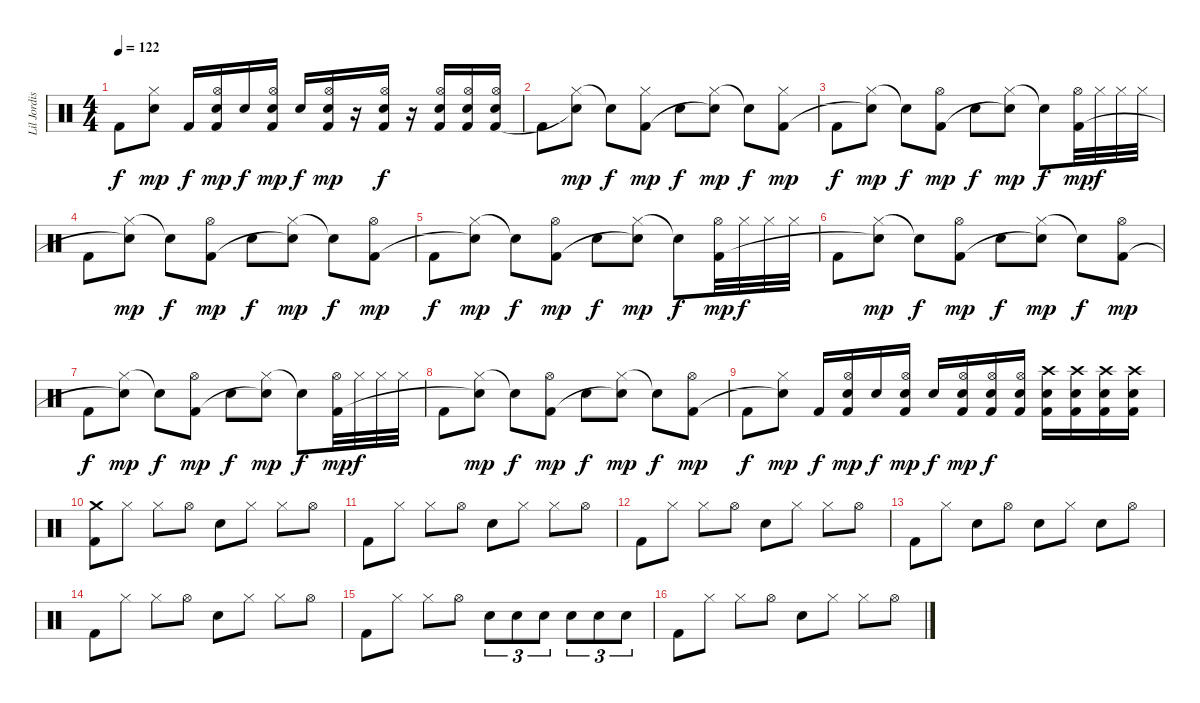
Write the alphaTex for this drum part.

\track ("Lil Jordison" "Lil Jordis") {instrument percussion}
\staff {score}
\articulation defaults
\ts (4 4)
\tempo 122
\clef neutral
\ks c "Kick (hit) 2".8{dy f}
("Hi-Hat (closed)" "Snare (hit)"{t}).8{dy mp} "Kick (hit) 2".16{dy f} ("Hi-Hat (open)" "Kick (hit) 2" "Electric Snare (hit)").16{dy mp} "Electric Snare (hit)".16{dy f} ("Hi-Hat (open)" "Kick (hit) 2" "Electric Snare (hit)").16{dy mp} "Electric Snare (hit)".16{dy f} ("Hi-Hat (open)" "Kick (hit) 2" "Electric Snare (hit)").16{dy mp} r.16 ("Hi-Hat (open)" "Kick (hit) 2" "Electric Snare (hit)").16{dy f} r.16 ("Hi-Hat (open)" "Kick (hit) 2" "Electric Snare (hit)").16 ("Hi-Hat (open)" "Kick (hit) 2" "Electric Snare (hit)").16 ("Hi-Hat (open)" "Kick (hit) 2" "Electric Snare (hit)").16 |
"Kick (hit) 2".8 ("Hi-Hat (closed)" "Snare (hit)"{t}).8{dy mp} "Snare (hit)"{t}.8{dy f} ("Hi-Hat (closed)" "Kick (hit) 2").8{dy mp} "Electric Snare (hit)".8{dy f} ("Hi-Hat (closed)" "Snare (hit)"{t}).8{dy mp} "Snare (hit)"{t}.8{dy f} ("Hi-Hat (closed)" "Kick (hit) 2").8{dy mp} |
"Kick (hit) 2".8{dy f} ("Hi-Hat (closed)" "Snare (hit)"{t}).8{dy mp} "Snare (hit)"{t}.8{dy f} ("Hi-Hat (open)" "Kick (hit) 2").8{dy mp} "Electric Snare (hit)".8{dy f} ("Hi-Hat (closed)" "Snare (hit)"{t}).8{dy mp} "Snare (hit)"{t}.8{dy f} ("Hi-Hat (open)" "Kick (hit) 2").32{dy mp} "Hi-Hat (closed)".32{dy f} "Hi-Hat (closed)".32 "Hi-Hat (closed)".32 |
"Kick (hit) 2".8 ("Hi-Hat (closed)" "Snare (hit)"{t}).8{dy mp} "Snare (hit)"{t}.8{dy f} ("Hi-Hat (open)" "Kick (hit) 2").8{dy mp} "Electric Snare (hit)".8{dy f} ("Hi-Hat (closed)" "Snare (hit)"{t}).8{dy mp} "Snare (hit)"{t}.8{dy f} ("Hi-Hat (open)" "Kick (hit) 2").8{dy mp} |
"Kick (hit) 2".8{dy f} ("Hi-Hat (closed)" "Snare (hit)"{t}).8{dy mp} "Snare (hit)"{t}.8{dy f} ("Hi-Hat (open)" "Kick (hit) 2").8{dy mp} "Electric Snare (hit)".8{dy f} ("Hi-Hat (closed)" "Snare (hit)"{t}).8{dy mp} "Snare (hit)"{t}.8{dy f} ("Hi-Hat (open)" "Kick (hit) 2").32{dy mp} "Hi-Hat (closed)".32{dy f} "Hi-Hat (closed)".32 "Hi-Hat (closed)".32 |
"Kick (hit) 2".8 ("Hi-Hat (closed)" "Snare (hit)"{t}).8{dy mp} "Snare (hit)"{t}.8{dy f} ("Hi-Hat (open)" "Kick (hit) 2").8{dy mp} "Electric Snare (hit)".8{dy f} ("Hi-Hat (closed)" "Snare (hit)"{t}).8{dy mp} "Snare (hit)"{t}.8{dy f} ("Hi-Hat (open)" "Kick (hit) 2").8{dy mp} |
"Kick (hit) 2".8{dy f} ("Hi-Hat (closed)" "Snare (hit)"{t}).8{dy mp} "Snare (hit)"{t}.8{dy f} ("Hi-Hat (open)" "Kick (hit) 2").8{dy mp} "Electric Snare (hit)".8{dy f} ("Hi-Hat (closed)" "Snare (hit)"{t}).8{dy mp} "Snare (hit)"{t}.8{dy f} ("Hi-Hat (open)" "Kick (hit) 2").32{dy mp} "Hi-Hat (closed)".32{dy f} "Hi-Hat (closed)".32 "Hi-Hat (closed)".32 |
"Kick (hit) 2".8 ("Hi-Hat (closed)" "Snare (hit)"{t}).8{dy mp} "Snare (hit)"{t}.8{dy f} ("Hi-Hat (open)" "Kick (hit) 2").8{dy mp} "Electric Snare (hit)".8{dy f} ("Hi-Hat (closed)" "Snare (hit)"{t}).8{dy mp} "Snare (hit)"{t}.8{dy f} ("Hi-Hat (open)" "Kick (hit) 2").8{dy mp} |
"Kick (hit) 2".8{dy f} ("Hi-Hat (closed)" "Snare (hit)"{t}).8{dy mp} "Kick (hit) 2".16{dy f} ("Hi-Hat (open)" "Kick (hit) 2" "Electric Snare (hit)").16{dy mp} "Electric Snare (hit)".16{dy f} ("Hi-Hat (open)" "Kick (hit) 2" "Electric Snare (hit)").16{dy mp} "Electric Snare (hit)".16{dy f} ("Hi-Hat (open)" "Kick (hit) 2" "Electric Snare (hit)").16{dy mp} ("Hi-Hat (open)" "Kick (hit) 2" "Electric Snare (hit)").16{dy f} ("Hi-Hat (open)" "Kick (hit) 2" "Electric Snare (hit)").16 ("Crash high (hit)" "Kick (hit) 2" "Electric Snare (hit)").16 ("Crash high (hit)" "Kick (hit) 2" "Electric Snare (hit)").16 ("Crash high (hit)" "Kick (hit) 2" "Electric Snare (hit)").16 ("Crash high (hit)" "Kick (hit) 2" "Electric Snare (hit)").16 |
("Crash medium (hit)" "Kick (hit) 2").8 "Hi-Hat (closed)".8 "Hi-Hat (closed)".8 "Hi-Hat (open)".8 "Electric Snare (hit)".8 "Hi-Hat (closed)".8 "Hi-Hat (closed)".8 "Hi-Hat (open)".8 |
"Kick (hit) 2".8 "Hi-Hat (closed)".8 "Hi-Hat (closed)".8 "Hi-Hat (open)".8 "Electric Snare (hit)".8 "Hi-Hat (closed)".8 "Hi-Hat (closed)".8 "Hi-Hat (open)".8 |
"Kick (hit) 2".8 "Hi-Hat (closed)".8 "Hi-Hat (closed)".8 "Hi-Hat (open)".8 "Electric Snare (hit)".8 "Hi-Hat (closed)".8 "Hi-Hat (closed)".8 "Hi-Hat (open)".8 |
"Kick (hit) 2".8 "Hi-Hat (closed)".8 "Electric Snare (hit)".8 "Hi-Hat (open)".8 "Electric Snare (hit)".8 "Hi-Hat (closed)".8 "Electric Snare (hit)".8 "Hi-Hat (open)".8 |
"Kick (hit) 2".8 "Hi-Hat (closed)".8 "Hi-Hat (closed)".8 "Hi-Hat (open)".8 "Electric Snare (hit)".8 "Hi-Hat (closed)".8 "Hi-Hat (closed)".8 "Hi-Hat (open)".8 |
"Kick (hit) 2".8 "Hi-Hat (closed)".8 "Hi-Hat (closed)".8 "Hi-Hat (open)".8 "Electric Snare (hit)".8{tu (3 2)} "Electric Snare (hit)".8{tu (3 2)} "Electric Snare (hit)".8{tu (3 2)} "Electric Snare (hit)".8{tu (3 2)} "Electric Snare (hit)".8{tu (3 2)} "Electric Snare (hit)".8{tu (3 2)} |
"Kick (hit) 2".8 "Hi-Hat (closed)".8 "Hi-Hat (closed)".8 "Hi-Hat (open)".8 "Electric Snare (hit)".8 "Hi-Hat (closed)".8 "Hi-Hat (closed)".8 "Hi-Hat (open)".8
